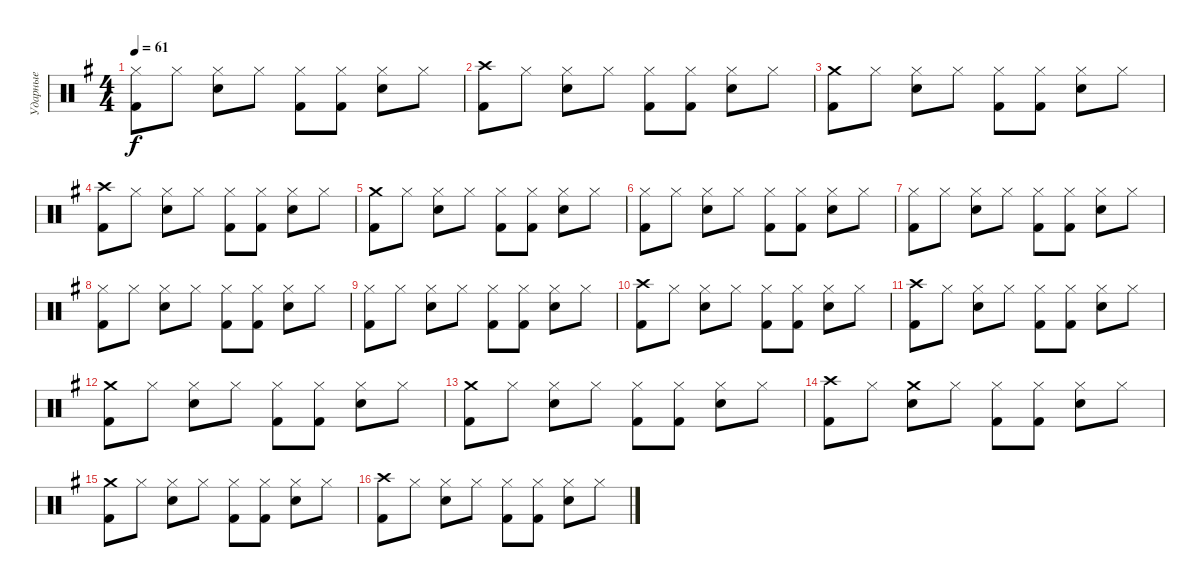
\track ("Ударные" "Ударные") {instrument percussion}
\staff {score}
\articulation defaults
\ts (4 4)
\tempo 61
\clef neutral
\ks g
("Hi-Hat (closed)" "Kick (hit) 2").8{dy f} "Hi-Hat (closed)".8 ("Hi-Hat (closed)" "Electric Snare (hit)").8 "Hi-Hat (closed)".8 ("Hi-Hat (closed)" "Kick (hit) 2").8 ("Hi-Hat (closed)" "Kick (hit) 2").8 ("Hi-Hat (closed)" "Electric Snare (hit)").8 "Hi-Hat (closed)".8 |
("Crash high (hit)" "Kick (hit) 2").8 "Hi-Hat (closed)".8 ("Hi-Hat (closed)" "Electric Snare (hit)").8 "Hi-Hat (closed)".8 ("Hi-Hat (closed)" "Kick (hit) 2").8 ("Hi-Hat (closed)" "Kick (hit) 2").8 ("Hi-Hat (closed)" "Electric Snare (hit)").8 "Hi-Hat (closed)".8 |
("Crash medium (hit)" "Kick (hit) 2").8 "Hi-Hat (closed)".8 ("Hi-Hat (closed)" "Electric Snare (hit)").8 "Hi-Hat (closed)".8 ("Hi-Hat (closed)" "Kick (hit) 2").8 ("Hi-Hat (closed)" "Kick (hit) 2").8 ("Hi-Hat (closed)" "Electric Snare (hit)").8 "Hi-Hat (closed)".8 |
("Crash high (hit)" "Kick (hit) 2").8 "Hi-Hat (closed)".8 ("Hi-Hat (closed)" "Electric Snare (hit)").8 "Hi-Hat (closed)".8 ("Hi-Hat (closed)" "Kick (hit) 2").8 ("Hi-Hat (closed)" "Kick (hit) 2").8 ("Hi-Hat (closed)" "Electric Snare (hit)").8 "Hi-Hat (closed)".8 |
("Crash medium (hit)" "Kick (hit) 2").8 "Hi-Hat (closed)".8 ("Hi-Hat (closed)" "Electric Snare (hit)").8 "Hi-Hat (closed)".8 ("Hi-Hat (closed)" "Kick (hit) 2").8 ("Hi-Hat (closed)" "Kick (hit) 2").8 ("Hi-Hat (closed)" "Electric Snare (hit)").8 "Hi-Hat (closed)".8 |
("Hi-Hat (closed)" "Kick (hit) 2").8 "Hi-Hat (closed)".8 ("Hi-Hat (closed)" "Electric Snare (hit)").8 "Hi-Hat (closed)".8 ("Hi-Hat (closed)" "Kick (hit) 2").8 ("Hi-Hat (closed)" "Kick (hit) 2").8 ("Hi-Hat (closed)" "Electric Snare (hit)").8 "Hi-Hat (closed)".8 |
("Hi-Hat (closed)" "Kick (hit) 2").8 "Hi-Hat (closed)".8 ("Hi-Hat (closed)" "Electric Snare (hit)").8 "Hi-Hat (closed)".8 ("Hi-Hat (closed)" "Kick (hit) 2").8 ("Hi-Hat (closed)" "Kick (hit) 2").8 ("Hi-Hat (closed)" "Electric Snare (hit)").8 "Hi-Hat (closed)".8 |
("Hi-Hat (closed)" "Kick (hit) 2").8 "Hi-Hat (closed)".8 ("Hi-Hat (closed)" "Electric Snare (hit)").8 "Hi-Hat (closed)".8 ("Hi-Hat (closed)" "Kick (hit) 2").8 ("Hi-Hat (closed)" "Kick (hit) 2").8 ("Hi-Hat (closed)" "Electric Snare (hit)").8 "Hi-Hat (closed)".8 |
("Hi-Hat (closed)" "Kick (hit) 2").8 "Hi-Hat (closed)".8 ("Hi-Hat (closed)" "Electric Snare (hit)").8 "Hi-Hat (closed)".8 ("Hi-Hat (closed)" "Kick (hit) 2").8 ("Hi-Hat (closed)" "Kick (hit) 2").8 ("Hi-Hat (closed)" "Electric Snare (hit)").8 "Hi-Hat (closed)".8 |
("Crash high (hit)" "Kick (hit) 2").8 "Hi-Hat (closed)".8 ("Hi-Hat (closed)" "Electric Snare (hit)").8 "Hi-Hat (closed)".8 ("Hi-Hat (closed)" "Kick (hit) 2").8 ("Hi-Hat (closed)" "Kick (hit) 2").8 ("Hi-Hat (closed)" "Electric Snare (hit)").8 "Hi-Hat (closed)".8 |
("Crash high (hit)" "Kick (hit) 2").8 "Hi-Hat (closed)".8 ("Hi-Hat (closed)" "Electric Snare (hit)").8 "Hi-Hat (closed)".8 ("Hi-Hat (closed)" "Kick (hit) 2").8 ("Hi-Hat (closed)" "Kick (hit) 2").8 ("Hi-Hat (closed)" "Electric Snare (hit)").8 "Hi-Hat (closed)".8 |
("Crash medium (hit)" "Kick (hit) 2").8 "Hi-Hat (closed)".8 ("Hi-Hat (closed)" "Electric Snare (hit)").8 "Hi-Hat (closed)".8 ("Hi-Hat (closed)" "Kick (hit) 2").8 ("Hi-Hat (closed)" "Kick (hit) 2").8 ("Hi-Hat (closed)" "Electric Snare (hit)").8 "Hi-Hat (closed)".8 |
("Crash medium (hit)" "Kick (hit) 2").8 "Hi-Hat (closed)".8 ("Hi-Hat (closed)" "Electric Snare (hit)").8 "Hi-Hat (closed)".8 ("Hi-Hat (closed)" "Kick (hit) 2").8 ("Hi-Hat (closed)" "Kick (hit) 2").8 ("Hi-Hat (closed)" "Electric Snare (hit)").8 "Hi-Hat (closed)".8 |
("Crash high (hit)" "Kick (hit) 2").8 "Hi-Hat (closed)".8 ("Crash medium (hit)" "Electric Snare (hit)").8 "Hi-Hat (closed)".8 ("Hi-Hat (closed)" "Kick (hit) 2").8 ("Hi-Hat (closed)" "Kick (hit) 2").8 ("Hi-Hat (closed)" "Electric Snare (hit)").8 "Hi-Hat (closed)".8 |
("Crash medium (hit)" "Kick (hit) 2").8 "Hi-Hat (closed)".8 ("Hi-Hat (closed)" "Electric Snare (hit)").8 "Hi-Hat (closed)".8 ("Hi-Hat (closed)" "Kick (hit) 2").8 ("Hi-Hat (closed)" "Kick (hit) 2").8 ("Hi-Hat (closed)" "Electric Snare (hit)").8 "Hi-Hat (closed)".8 |
("Crash high (hit)" "Kick (hit) 2").8 "Hi-Hat (closed)".8 ("Hi-Hat (closed)" "Electric Snare (hit)").8 "Hi-Hat (closed)".8 ("Hi-Hat (closed)" "Kick (hit) 2").8 ("Hi-Hat (closed)" "Kick (hit) 2").8 ("Hi-Hat (closed)" "Electric Snare (hit)").8 "Hi-Hat (closed)".8
